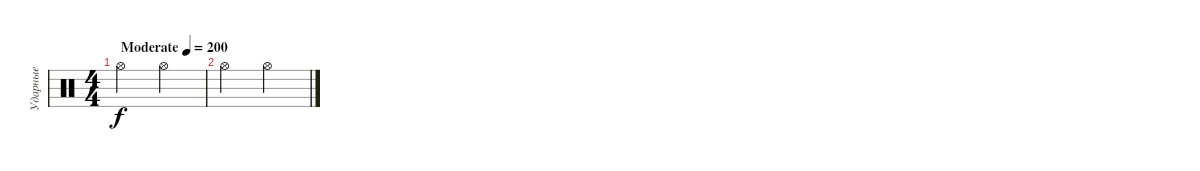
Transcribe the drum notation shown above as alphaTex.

\track ("Ударные" "Ударные") {instrument percussion}
\staff {score}
\articulation defaults
\ts (4 4)
\tempo (200 "Moderate")
\clef neutral
\ks c "Hi-Hat (open)".2{dy f} "Hi-Hat (open)".2
|
"Hi-Hat (open)".2 "Hi-Hat (open)".2
